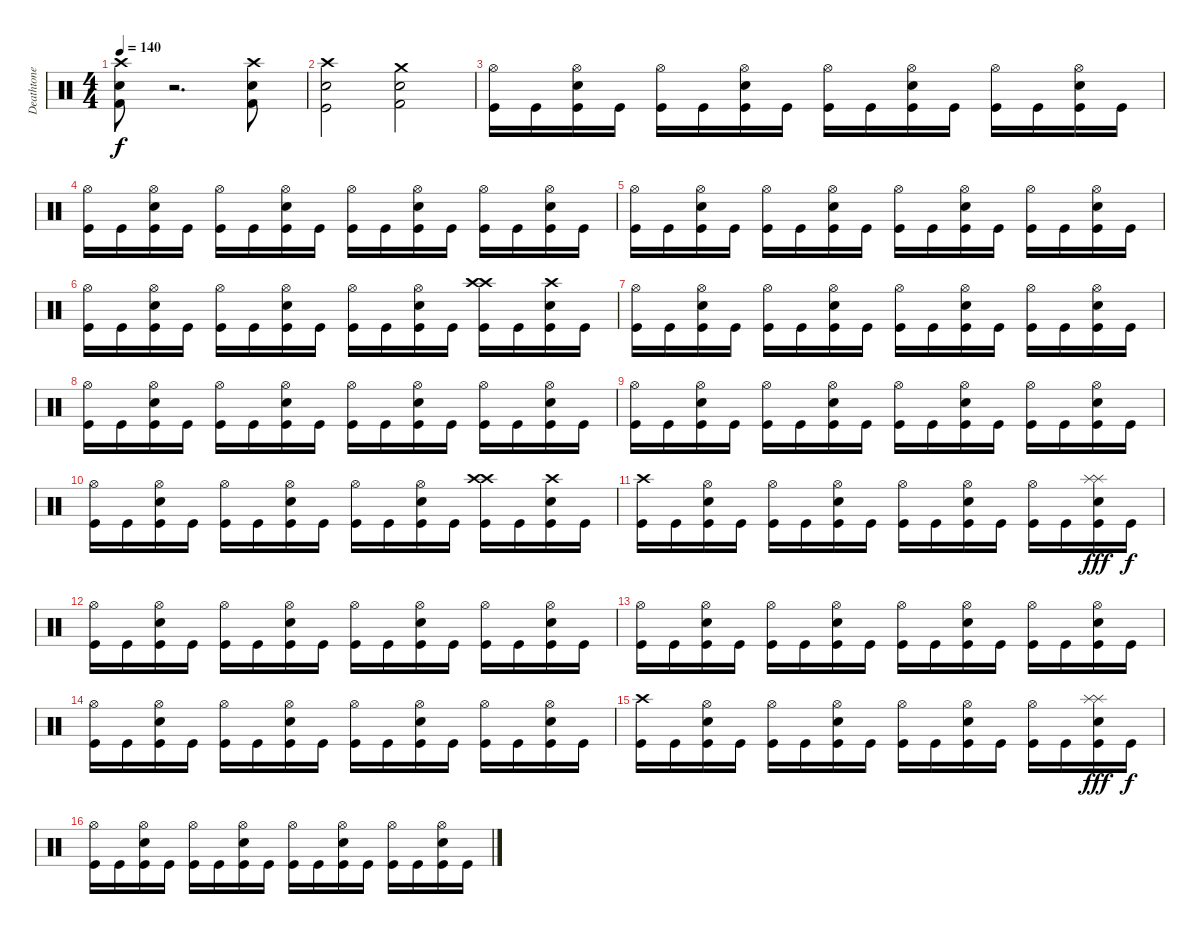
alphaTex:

\track ("Deathtone" "Deathtone") {instrument percussion}
\staff {score}
\articulation defaults
\ts (4 4)
\tempo 140
\clef neutral
\ks c
("Crash high (hit)" "Snare (hit) 2" "Kick (hit) 2").8{dy f} r.2{d} ("Crash high (hit)" "Snare (hit) 2" "Kick (hit) 2").8 |
("Crash high (hit)" "Snare (hit) 2" "Kick (hit)").2 ("Crash medium (hit)" "Snare (hit) 2" "Kick (hit) 2").2 |
("Hi-Hat (open)" "Kick (hit)").16 "Kick (hit)".16 ("Hi-Hat (open)" "Snare (hit) 2" "Kick (hit)").16 "Kick (hit)".16 ("Hi-Hat (open)" "Kick (hit)").16 "Kick (hit)".16 ("Hi-Hat (open)" "Snare (hit) 2" "Kick (hit)").16 "Kick (hit)".16 ("Hi-Hat (open)" "Kick (hit)").16 "Kick (hit)".16 ("Hi-Hat (open)" "Snare (hit) 2" "Kick (hit)").16 "Kick (hit)".16 ("Hi-Hat (open)" "Kick (hit)").16 "Kick (hit)".16 ("Hi-Hat (open)" "Snare (hit) 2" "Kick (hit)").16 "Kick (hit)".16 |
("Hi-Hat (open)" "Kick (hit)").16 "Kick (hit)".16 ("Hi-Hat (open)" "Snare (hit) 2" "Kick (hit)").16 "Kick (hit)".16 ("Hi-Hat (open)" "Kick (hit)").16 "Kick (hit)".16 ("Hi-Hat (open)" "Snare (hit) 2" "Kick (hit)").16 "Kick (hit)".16 ("Hi-Hat (open)" "Kick (hit)").16 "Kick (hit)".16 ("Hi-Hat (open)" "Snare (hit) 2" "Kick (hit)").16 "Kick (hit)".16 ("Hi-Hat (open)" "Kick (hit)").16 "Kick (hit)".16 ("Hi-Hat (open)" "Snare (hit) 2" "Kick (hit)").16 "Kick (hit)".16 |
("Hi-Hat (open)" "Kick (hit)").16 "Kick (hit)".16 ("Hi-Hat (open)" "Snare (hit) 2" "Kick (hit)").16 "Kick (hit)".16 ("Hi-Hat (open)" "Kick (hit)").16 "Kick (hit)".16 ("Hi-Hat (open)" "Snare (hit) 2" "Kick (hit)").16 "Kick (hit)".16 ("Hi-Hat (open)" "Kick (hit)").16 "Kick (hit)".16 ("Hi-Hat (open)" "Snare (hit) 2" "Kick (hit)").16 "Kick (hit)".16 ("Hi-Hat (open)" "Kick (hit)").16 "Kick (hit)".16 ("Hi-Hat (open)" "Snare (hit) 2" "Kick (hit)").16 "Kick (hit)".16 |
("Hi-Hat (open)" "Kick (hit)").16 "Kick (hit)".16 ("Hi-Hat (open)" "Snare (hit) 2" "Kick (hit)").16 "Kick (hit)".16 ("Hi-Hat (open)" "Kick (hit)").16 "Kick (hit)".16 ("Hi-Hat (open)" "Snare (hit) 2" "Kick (hit)").16 "Kick (hit)".16 ("Hi-Hat (open)" "Kick (hit)").16 "Kick (hit)".16 ("Hi-Hat (open)" "Snare (hit) 2" "Kick (hit)").16 "Kick (hit)".16 ("Crash high (hit)" "Crash high (hit)" "Kick (hit)").16 "Kick (hit)".16 ("Crash high (hit)" "Snare (hit) 2" "Kick (hit)").16 "Kick (hit)".16 |
("Hi-Hat (open)" "Kick (hit)").16 "Kick (hit)".16 ("Hi-Hat (open)" "Snare (hit) 2" "Kick (hit)").16 "Kick (hit)".16 ("Hi-Hat (open)" "Kick (hit)").16 "Kick (hit)".16 ("Hi-Hat (open)" "Snare (hit) 2" "Kick (hit)").16 "Kick (hit)".16 ("Hi-Hat (open)" "Kick (hit)").16 "Kick (hit)".16 ("Hi-Hat (open)" "Snare (hit) 2" "Kick (hit)").16 "Kick (hit)".16 ("Hi-Hat (open)" "Kick (hit)").16 "Kick (hit)".16 ("Hi-Hat (open)" "Snare (hit) 2" "Kick (hit)").16 "Kick (hit)".16 |
("Hi-Hat (open)" "Kick (hit)").16 "Kick (hit)".16 ("Hi-Hat (open)" "Snare (hit) 2" "Kick (hit)").16 "Kick (hit)".16 ("Hi-Hat (open)" "Kick (hit)").16 "Kick (hit)".16 ("Hi-Hat (open)" "Snare (hit) 2" "Kick (hit)").16 "Kick (hit)".16 ("Hi-Hat (open)" "Kick (hit)").16 "Kick (hit)".16 ("Hi-Hat (open)" "Snare (hit) 2" "Kick (hit)").16 "Kick (hit)".16 ("Hi-Hat (open)" "Kick (hit)").16 "Kick (hit)".16 ("Hi-Hat (open)" "Snare (hit) 2" "Kick (hit)").16 "Kick (hit)".16 |
("Hi-Hat (open)" "Kick (hit)").16 "Kick (hit)".16 ("Hi-Hat (open)" "Snare (hit) 2" "Kick (hit)").16 "Kick (hit)".16 ("Hi-Hat (open)" "Kick (hit)").16 "Kick (hit)".16 ("Hi-Hat (open)" "Snare (hit) 2" "Kick (hit)").16 "Kick (hit)".16 ("Hi-Hat (open)" "Kick (hit)").16 "Kick (hit)".16 ("Hi-Hat (open)" "Snare (hit) 2" "Kick (hit)").16 "Kick (hit)".16 ("Hi-Hat (open)" "Kick (hit)").16 "Kick (hit)".16 ("Hi-Hat (open)" "Snare (hit) 2" "Kick (hit)").16 "Kick (hit)".16 |
("Hi-Hat (open)" "Kick (hit)").16 "Kick (hit)".16 ("Hi-Hat (open)" "Snare (hit) 2" "Kick (hit)").16 "Kick (hit)".16 ("Hi-Hat (open)" "Kick (hit)").16 "Kick (hit)".16 ("Hi-Hat (open)" "Snare (hit) 2" "Kick (hit)").16 "Kick (hit)".16 ("Hi-Hat (open)" "Kick (hit)").16 "Kick (hit)".16 ("Hi-Hat (open)" "Snare (hit) 2" "Kick (hit)").16 "Kick (hit)".16 ("Crash high (hit)" "Crash high (hit)" "Kick (hit)").16 "Kick (hit)".16 ("Crash high (hit)" "Snare (hit) 2" "Kick (hit)").16 "Kick (hit)".16 |
("Crash high (hit)" "Kick (hit)").16 "Kick (hit)".16 ("Hi-Hat (open)" "Snare (hit) 2" "Kick (hit)").16 "Kick (hit)".16 ("Hi-Hat (open)" "Kick (hit)").16 "Kick (hit)".16 ("Hi-Hat (open)" "Snare (hit) 2" "Kick (hit)").16 "Kick (hit)".16 ("Hi-Hat (open)" "Kick (hit)").16 "Kick (hit)".16 ("Hi-Hat (open)" "Snare (hit) 2" "Kick (hit)").16 "Kick (hit)".16 ("Hi-Hat (open)" "Kick (hit)").16 "Kick (hit)".16 ("Splash (hit)" "Splash (hit)" "Snare (hit) 2" "Kick (hit)").16{dy fff} "Kick (hit)".16{dy f} |
("Hi-Hat (open)" "Kick (hit)").16 "Kick (hit)".16 ("Hi-Hat (open)" "Snare (hit) 2" "Kick (hit)").16 "Kick (hit)".16 ("Hi-Hat (open)" "Kick (hit)").16 "Kick (hit)".16 ("Hi-Hat (open)" "Snare (hit) 2" "Kick (hit)").16 "Kick (hit)".16 ("Hi-Hat (open)" "Kick (hit)").16 "Kick (hit)".16 ("Hi-Hat (open)" "Snare (hit) 2" "Kick (hit)").16 "Kick (hit)".16 ("Hi-Hat (open)" "Kick (hit)").16 "Kick (hit)".16 ("Hi-Hat (open)" "Snare (hit) 2" "Kick (hit)").16 "Kick (hit)".16 |
("Hi-Hat (open)" "Kick (hit)").16 "Kick (hit)".16 ("Hi-Hat (open)" "Snare (hit) 2" "Kick (hit)").16 "Kick (hit)".16 ("Hi-Hat (open)" "Kick (hit)").16 "Kick (hit)".16 ("Hi-Hat (open)" "Snare (hit) 2" "Kick (hit)").16 "Kick (hit)".16 ("Hi-Hat (open)" "Kick (hit)").16 "Kick (hit)".16 ("Hi-Hat (open)" "Snare (hit) 2" "Kick (hit)").16 "Kick (hit)".16 ("Hi-Hat (open)" "Kick (hit)").16 "Kick (hit)".16 ("Hi-Hat (open)" "Snare (hit) 2" "Kick (hit)").16 "Kick (hit)".16 |
("Hi-Hat (open)" "Kick (hit)").16 "Kick (hit)".16 ("Hi-Hat (open)" "Snare (hit) 2" "Kick (hit)").16 "Kick (hit)".16 ("Hi-Hat (open)" "Kick (hit)").16 "Kick (hit)".16 ("Hi-Hat (open)" "Snare (hit) 2" "Kick (hit)").16 "Kick (hit)".16 ("Hi-Hat (open)" "Kick (hit)").16 "Kick (hit)".16 ("Hi-Hat (open)" "Snare (hit) 2" "Kick (hit)").16 "Kick (hit)".16 ("Hi-Hat (open)" "Kick (hit)").16 "Kick (hit)".16 ("Hi-Hat (open)" "Snare (hit) 2" "Kick (hit)").16 "Kick (hit)".16 |
("Crash high (hit)" "Kick (hit)").16 "Kick (hit)".16 ("Hi-Hat (open)" "Snare (hit) 2" "Kick (hit)").16 "Kick (hit)".16 ("Hi-Hat (open)" "Kick (hit)").16 "Kick (hit)".16 ("Hi-Hat (open)" "Snare (hit) 2" "Kick (hit)").16 "Kick (hit)".16 ("Hi-Hat (open)" "Kick (hit)").16 "Kick (hit)".16 ("Hi-Hat (open)" "Snare (hit) 2" "Kick (hit)").16 "Kick (hit)".16 ("Hi-Hat (open)" "Kick (hit)").16 "Kick (hit)".16 ("Splash (hit)" "Splash (hit)" "Snare (hit) 2" "Kick (hit)").16{dy fff} "Kick (hit)".16{dy f} |
("Hi-Hat (open)" "Kick (hit)").16 "Kick (hit)".16 ("Hi-Hat (open)" "Snare (hit) 2" "Kick (hit)").16 "Kick (hit)".16 ("Hi-Hat (open)" "Kick (hit)").16 "Kick (hit)".16 ("Hi-Hat (open)" "Snare (hit) 2" "Kick (hit)").16 "Kick (hit)".16 ("Hi-Hat (open)" "Kick (hit)").16 "Kick (hit)".16 ("Hi-Hat (open)" "Snare (hit) 2" "Kick (hit)").16 "Kick (hit)".16 ("Hi-Hat (open)" "Kick (hit)").16 "Kick (hit)".16 ("Hi-Hat (open)" "Snare (hit) 2" "Kick (hit)").16 "Kick (hit)".16
